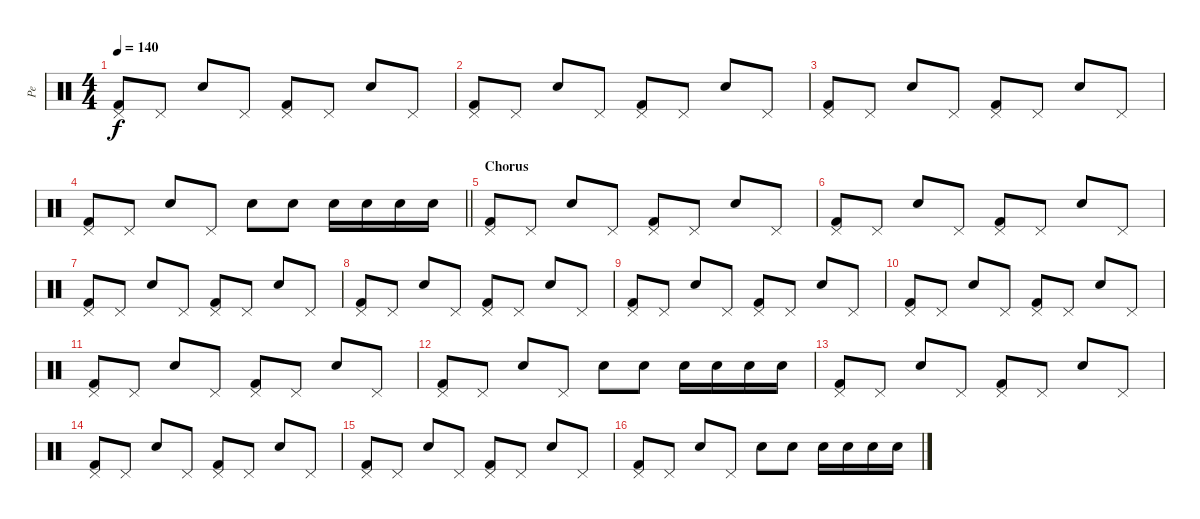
\track ("Pe" "Pe") {instrument percussion}
\staff {score}
\articulation defaults
\ts (4 4)
\tempo 140
\clef neutral
\ks c
("Kick (hit) 2" "Pedal Hi-Hat (hit)").8{dy f} "Pedal Hi-Hat (hit)".8 "Snare (hit) 2".8 "Pedal Hi-Hat (hit)".8 ("Kick (hit) 2" "Pedal Hi-Hat (hit)").8 "Pedal Hi-Hat (hit)".8 "Snare (hit) 2".8 "Pedal Hi-Hat (hit)".8 |
("Kick (hit) 2" "Pedal Hi-Hat (hit)").8 "Pedal Hi-Hat (hit)".8 "Snare (hit) 2".8 "Pedal Hi-Hat (hit)".8 ("Kick (hit) 2" "Pedal Hi-Hat (hit)").8 "Pedal Hi-Hat (hit)".8 "Snare (hit) 2".8 "Pedal Hi-Hat (hit)".8 |
("Kick (hit) 2" "Pedal Hi-Hat (hit)").8 "Pedal Hi-Hat (hit)".8 "Snare (hit) 2".8 "Pedal Hi-Hat (hit)".8 ("Kick (hit) 2" "Pedal Hi-Hat (hit)").8 "Pedal Hi-Hat (hit)".8 "Snare (hit) 2".8 "Pedal Hi-Hat (hit)".8 |
\barLineRight lightlight
("Kick (hit) 2" "Pedal Hi-Hat (hit)").8 "Pedal Hi-Hat (hit)".8 "Snare (hit) 2".8 "Pedal Hi-Hat (hit)".8 "Snare (hit) 2".8 "Snare (hit) 2".8 "Snare (hit) 2".16 "Snare (hit) 2".16 "Snare (hit) 2".16 "Snare (hit) 2".16 |
\section ("" "Chorus")
("Kick (hit) 2" "Pedal Hi-Hat (hit)").8 "Pedal Hi-Hat (hit)".8 "Snare (hit) 2".8 "Pedal Hi-Hat (hit)".8 ("Kick (hit) 2" "Pedal Hi-Hat (hit)").8 "Pedal Hi-Hat (hit)".8 "Snare (hit) 2".8 "Pedal Hi-Hat (hit)".8 |
("Kick (hit) 2" "Pedal Hi-Hat (hit)").8 "Pedal Hi-Hat (hit)".8 "Snare (hit) 2".8 "Pedal Hi-Hat (hit)".8 ("Kick (hit) 2" "Pedal Hi-Hat (hit)").8 "Pedal Hi-Hat (hit)".8 "Snare (hit) 2".8 "Pedal Hi-Hat (hit)".8 |
("Kick (hit) 2" "Pedal Hi-Hat (hit)").8 "Pedal Hi-Hat (hit)".8 "Snare (hit) 2".8 "Pedal Hi-Hat (hit)".8 ("Kick (hit) 2" "Pedal Hi-Hat (hit)").8 "Pedal Hi-Hat (hit)".8 "Snare (hit) 2".8 "Pedal Hi-Hat (hit)".8 |
("Kick (hit) 2" "Pedal Hi-Hat (hit)").8 "Pedal Hi-Hat (hit)".8 "Snare (hit) 2".8 "Pedal Hi-Hat (hit)".8 ("Kick (hit) 2" "Pedal Hi-Hat (hit)").8 "Pedal Hi-Hat (hit)".8 "Snare (hit) 2".8 "Pedal Hi-Hat (hit)".8 |
("Kick (hit) 2" "Pedal Hi-Hat (hit)").8 "Pedal Hi-Hat (hit)".8 "Snare (hit) 2".8 "Pedal Hi-Hat (hit)".8 ("Kick (hit) 2" "Pedal Hi-Hat (hit)").8 "Pedal Hi-Hat (hit)".8 "Snare (hit) 2".8 "Pedal Hi-Hat (hit)".8 |
("Kick (hit) 2" "Pedal Hi-Hat (hit)").8 "Pedal Hi-Hat (hit)".8 "Snare (hit) 2".8 "Pedal Hi-Hat (hit)".8 ("Kick (hit) 2" "Pedal Hi-Hat (hit)").8 "Pedal Hi-Hat (hit)".8 "Snare (hit) 2".8 "Pedal Hi-Hat (hit)".8 |
("Kick (hit) 2" "Pedal Hi-Hat (hit)").8 "Pedal Hi-Hat (hit)".8 "Snare (hit) 2".8 "Pedal Hi-Hat (hit)".8 ("Kick (hit) 2" "Pedal Hi-Hat (hit)").8 "Pedal Hi-Hat (hit)".8 "Snare (hit) 2".8 "Pedal Hi-Hat (hit)".8 |
("Kick (hit) 2" "Pedal Hi-Hat (hit)").8 "Pedal Hi-Hat (hit)".8 "Snare (hit) 2".8 "Pedal Hi-Hat (hit)".8 "Snare (hit) 2".8 "Snare (hit) 2".8 "Snare (hit) 2".16 "Snare (hit) 2".16 "Snare (hit) 2".16 "Snare (hit) 2".16 |
("Kick (hit) 2" "Pedal Hi-Hat (hit)").8 "Pedal Hi-Hat (hit)".8 "Snare (hit) 2".8 "Pedal Hi-Hat (hit)".8 ("Kick (hit) 2" "Pedal Hi-Hat (hit)").8 "Pedal Hi-Hat (hit)".8 "Snare (hit) 2".8 "Pedal Hi-Hat (hit)".8 |
("Kick (hit) 2" "Pedal Hi-Hat (hit)").8 "Pedal Hi-Hat (hit)".8 "Snare (hit) 2".8 "Pedal Hi-Hat (hit)".8 ("Kick (hit) 2" "Pedal Hi-Hat (hit)").8 "Pedal Hi-Hat (hit)".8 "Snare (hit) 2".8 "Pedal Hi-Hat (hit)".8 |
("Kick (hit) 2" "Pedal Hi-Hat (hit)").8 "Pedal Hi-Hat (hit)".8 "Snare (hit) 2".8 "Pedal Hi-Hat (hit)".8 ("Kick (hit) 2" "Pedal Hi-Hat (hit)").8 "Pedal Hi-Hat (hit)".8 "Snare (hit) 2".8 "Pedal Hi-Hat (hit)".8 |
("Kick (hit) 2" "Pedal Hi-Hat (hit)").8 "Pedal Hi-Hat (hit)".8 "Snare (hit) 2".8 "Pedal Hi-Hat (hit)".8 "Snare (hit) 2".8 "Snare (hit) 2".8 "Snare (hit) 2".16 "Snare (hit) 2".16 "Snare (hit) 2".16 "Snare (hit) 2".16
